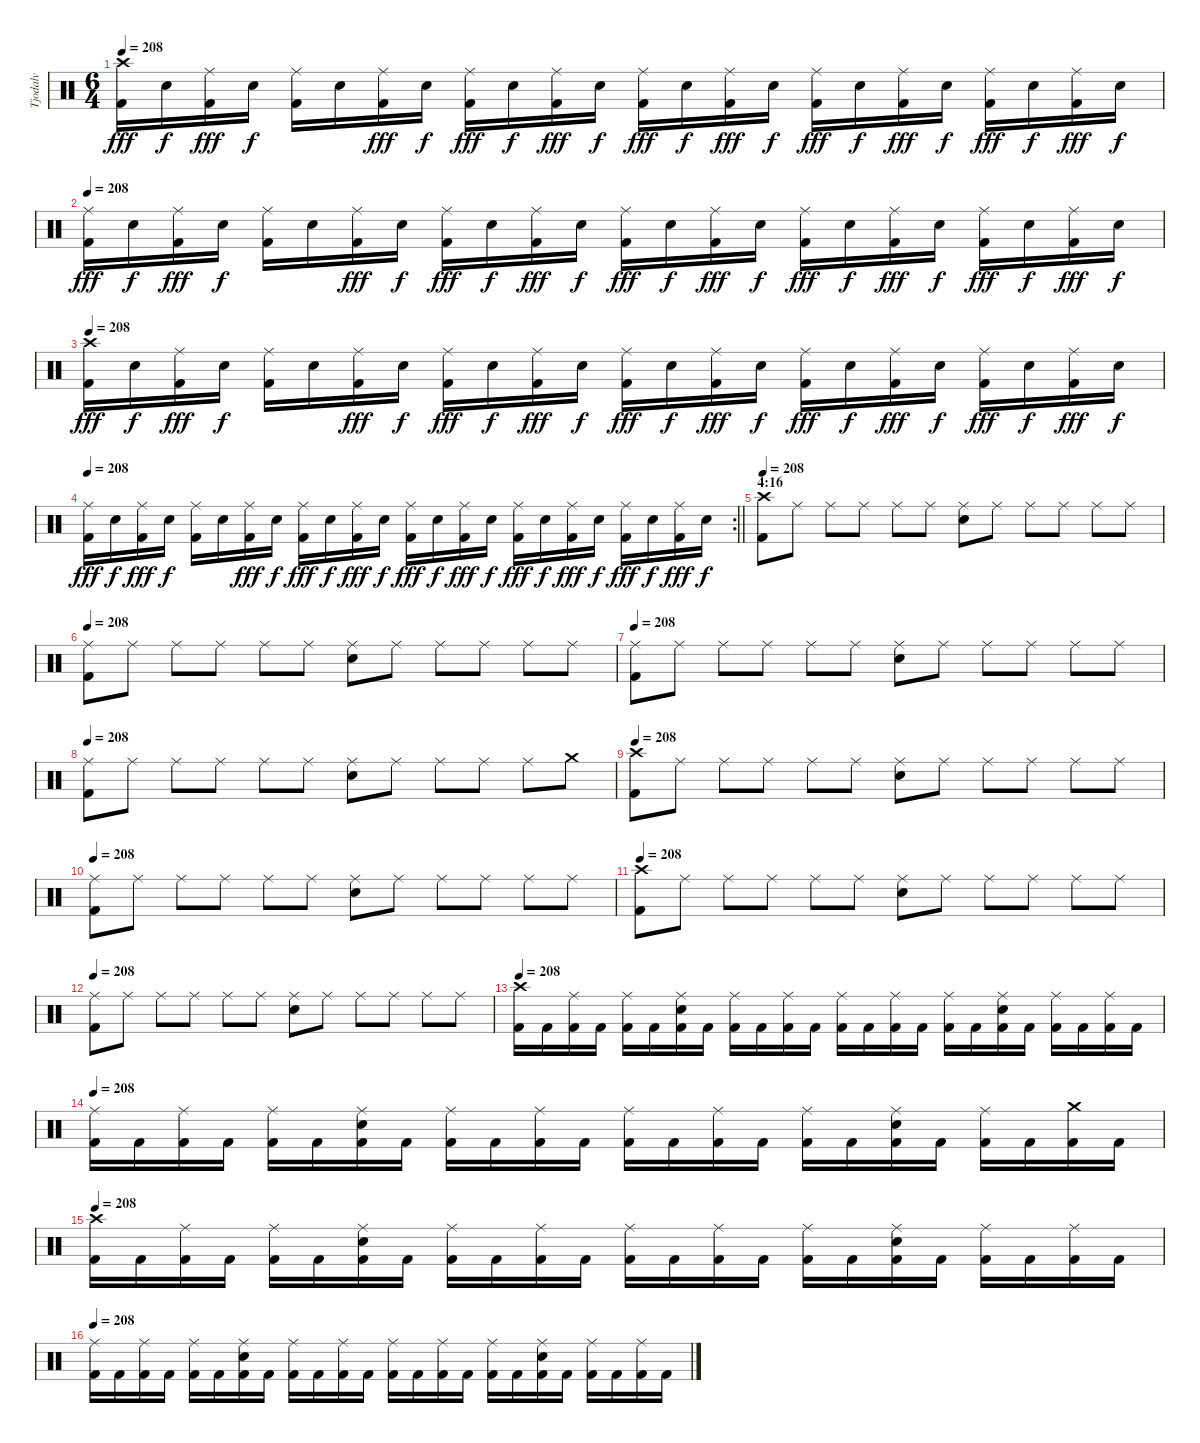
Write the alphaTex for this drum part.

\track ("Tjodalv" "Tjodalv") {instrument percussion}
\staff {score}
\articulation defaults
\ts (6 4)
\tempo 208
\clef neutral
\ks c
("Kick (hit) 2" "Crash high (hit)").16{dy fff} "Snare (hit) 2".16{dy f} ("Kick (hit) 2" "Ride (middle)").16{dy fff} "Snare (hit) 2".16{dy f} ("Kick (hit) 2" "Ride (middle)").16 "Snare (hit) 2".16 ("Kick (hit) 2" "Ride (middle)").16{dy fff} "Snare (hit) 2".16{dy f} ("Kick (hit) 2" "Ride (middle)").16{dy fff} "Snare (hit) 2".16{dy f} ("Kick (hit) 2" "Ride (middle)").16{dy fff} "Snare (hit) 2".16{dy f} ("Kick (hit) 2" "Ride (middle)").16{dy fff} "Snare (hit) 2".16{dy f} ("Kick (hit) 2" "Ride (middle)").16{dy fff} "Snare (hit) 2".16{dy f} ("Kick (hit) 2" "Ride (middle)").16{dy fff} "Snare (hit) 2".16{dy f} ("Kick (hit) 2" "Ride (middle)").16{dy fff} "Snare (hit) 2".16{dy f} ("Kick (hit) 2" "Ride (middle)").16{dy fff} "Snare (hit) 2".16{dy f} ("Kick (hit) 2" "Ride (middle)").16{dy fff} "Snare (hit) 2".16{dy f} |
\tempo 208
("Kick (hit) 2" "Ride (middle)").16{dy fff} "Snare (hit) 2".16{dy f} ("Kick (hit) 2" "Ride (middle)").16{dy fff} "Snare (hit) 2".16{dy f} ("Kick (hit) 2" "Ride (middle)").16 "Snare (hit) 2".16 ("Kick (hit) 2" "Ride (middle)").16{dy fff} "Snare (hit) 2".16{dy f} ("Kick (hit) 2" "Ride (middle)").16{dy fff} "Snare (hit) 2".16{dy f} ("Kick (hit) 2" "Ride (middle)").16{dy fff} "Snare (hit) 2".16{dy f} ("Kick (hit) 2" "Ride (middle)").16{dy fff} "Snare (hit) 2".16{dy f} ("Kick (hit) 2" "Ride (middle)").16{dy fff} "Snare (hit) 2".16{dy f} ("Kick (hit) 2" "Ride (middle)").16{dy fff} "Snare (hit) 2".16{dy f} ("Kick (hit) 2" "Ride (middle)").16{dy fff} "Snare (hit) 2".16{dy f} ("Kick (hit) 2" "Ride (middle)").16{dy fff} "Snare (hit) 2".16{dy f} ("Kick (hit) 2" "Ride (middle)").16{dy fff} "Snare (hit) 2".16{dy f} |
\tempo 208
("Kick (hit) 2" "Crash high (hit)").16{dy fff} "Snare (hit) 2".16{dy f} ("Kick (hit) 2" "Ride (middle)").16{dy fff} "Snare (hit) 2".16{dy f} ("Kick (hit) 2" "Ride (middle)").16 "Snare (hit) 2".16 ("Kick (hit) 2" "Ride (middle)").16{dy fff} "Snare (hit) 2".16{dy f} ("Kick (hit) 2" "Ride (middle)").16{dy fff} "Snare (hit) 2".16{dy f} ("Kick (hit) 2" "Ride (middle)").16{dy fff} "Snare (hit) 2".16{dy f} ("Kick (hit) 2" "Ride (middle)").16{dy fff} "Snare (hit) 2".16{dy f} ("Kick (hit) 2" "Ride (middle)").16{dy fff} "Snare (hit) 2".16{dy f} ("Kick (hit) 2" "Ride (middle)").16{dy fff} "Snare (hit) 2".16{dy f} ("Kick (hit) 2" "Ride (middle)").16{dy fff} "Snare (hit) 2".16{dy f} ("Kick (hit) 2" "Ride (middle)").16{dy fff} "Snare (hit) 2".16{dy f} ("Kick (hit) 2" "Ride (middle)").16{dy fff} "Snare (hit) 2".16{dy f} |
\rc 2
\tempo 208
\barLineRight lightlight
("Kick (hit) 2" "Ride (middle)").16{dy fff} "Snare (hit) 2".16{dy f} ("Kick (hit) 2" "Ride (middle)").16{dy fff} "Snare (hit) 2".16{dy f} ("Kick (hit) 2" "Ride (middle)").16 "Snare (hit) 2".16 ("Kick (hit) 2" "Ride (middle)").16{dy fff} "Snare (hit) 2".16{dy f} ("Kick (hit) 2" "Ride (middle)").16{dy fff} "Snare (hit) 2".16{dy f} ("Kick (hit) 2" "Ride (middle)").16{dy fff} "Snare (hit) 2".16{dy f} ("Kick (hit) 2" "Ride (middle)").16{dy fff} "Snare (hit) 2".16{dy f} ("Kick (hit) 2" "Ride (middle)").16{dy fff} "Snare (hit) 2".16{dy f} ("Kick (hit) 2" "Ride (middle)").16{dy fff} "Snare (hit) 2".16{dy f} ("Kick (hit) 2" "Ride (middle)").16{dy fff} "Snare (hit) 2".16{dy f} ("Kick (hit) 2" "Ride (middle)").16{dy fff} "Snare (hit) 2".16{dy f} ("Kick (hit) 2" "Ride (middle)").16{dy fff} "Snare (hit) 2".16{dy f} |
\section ("" "4:16")
\tempo 208
("Kick (hit) 2" "Crash high (hit)").8 "Ride (middle)".8 "Ride (middle)".8 "Ride (middle)".8 "Ride (middle)".8 "Ride (middle)".8 ("Snare (hit) 2" "Ride (middle)").8 "Ride (middle)".8 "Ride (middle)".8 "Ride (middle)".8 "Ride (middle)".8 "Ride (middle)".8 |
\tempo 208
("Kick (hit) 2" "Ride (middle)").8 "Ride (middle)".8 "Ride (middle)".8 "Ride (middle)".8 "Ride (middle)".8 "Ride (middle)".8 ("Snare (hit) 2" "Ride (middle)").8 "Ride (middle)".8 "Ride (middle)".8 "Ride (middle)".8 "Ride (middle)".8 "Ride (middle)".8 |
\tempo 208
("Kick (hit) 2" "Ride (middle)").8 "Ride (middle)".8 "Ride (middle)".8 "Ride (middle)".8 "Ride (middle)".8 "Ride (middle)".8 ("Snare (hit) 2" "Ride (middle)").8 "Ride (middle)".8 "Ride (middle)".8 "Ride (middle)".8 "Ride (middle)".8 "Ride (middle)".8 |
\tempo 208
("Kick (hit) 2" "Ride (middle)").8 "Ride (middle)".8 "Ride (middle)".8 "Ride (middle)".8 "Ride (middle)".8 "Ride (middle)".8 ("Snare (hit) 2" "Ride (middle)").8 "Ride (middle)".8 "Ride (middle)".8 "Ride (middle)".8 "Ride (middle)".8 "Crash medium (hit)".8 |
\tempo 208
("Kick (hit) 2" "Crash high (hit)").8 "Ride (middle)".8 "Ride (middle)".8 "Ride (middle)".8 "Ride (middle)".8 "Ride (middle)".8 ("Snare (hit) 2" "Ride (middle)").8 "Ride (middle)".8 "Ride (middle)".8 "Ride (middle)".8 "Ride (middle)".8 "Ride (middle)".8 |
\tempo 208
("Kick (hit) 2" "Ride (middle)").8 "Ride (middle)".8 "Ride (middle)".8 "Ride (middle)".8 "Ride (middle)".8 "Ride (middle)".8 ("Snare (hit) 2" "Ride (middle)").8 "Ride (middle)".8 "Ride (middle)".8 "Ride (middle)".8 "Ride (middle)".8 "Ride (middle)".8 |
\tempo 208
("Kick (hit) 2" "Crash high (hit)").8 "Ride (middle)".8 "Ride (middle)".8 "Ride (middle)".8 "Ride (middle)".8 "Ride (middle)".8 ("Snare (hit) 2" "Ride (middle)").8 "Ride (middle)".8 "Ride (middle)".8 "Ride (middle)".8 "Ride (middle)".8 "Ride (middle)".8 |
\tempo 208
("Kick (hit) 2" "Ride (middle)").8 "Ride (middle)".8 "Ride (middle)".8 "Ride (middle)".8 "Ride (middle)".8 "Ride (middle)".8 ("Snare (hit) 2" "Ride (middle)").8 "Ride (middle)".8 "Ride (middle)".8 "Ride (middle)".8 "Ride (middle)".8 "Ride (middle)".8 |
\tempo 208
("Kick (hit) 2" "Crash high (hit)").16 "Kick (hit) 2".16 ("Kick (hit) 2" "Ride (middle)").16 "Kick (hit) 2".16 ("Kick (hit) 2" "Ride (middle)").16 "Kick (hit) 2".16 ("Kick (hit) 2" "Snare (hit) 2" "Ride (middle)").16 "Kick (hit) 2".16 ("Kick (hit) 2" "Ride (middle)").16 "Kick (hit) 2".16 ("Kick (hit) 2" "Ride (middle)").16 "Kick (hit) 2".16 ("Kick (hit) 2" "Ride (middle)").16 "Kick (hit) 2".16 ("Kick (hit) 2" "Ride (middle)").16 "Kick (hit) 2".16 ("Kick (hit) 2" "Ride (middle)").16 "Kick (hit) 2".16 ("Kick (hit) 2" "Snare (hit) 2" "Ride (middle)").16 "Kick (hit) 2".16 ("Kick (hit) 2" "Ride (middle)").16 "Kick (hit) 2".16 ("Kick (hit) 2" "Ride (middle)").16 "Kick (hit) 2".16 |
\tempo 208
("Kick (hit) 2" "Ride (middle)").16 "Kick (hit) 2".16 ("Kick (hit) 2" "Ride (middle)").16 "Kick (hit) 2".16 ("Kick (hit) 2" "Ride (middle)").16 "Kick (hit) 2".16 ("Kick (hit) 2" "Snare (hit) 2" "Ride (middle)").16 "Kick (hit) 2".16 ("Kick (hit) 2" "Ride (middle)").16 "Kick (hit) 2".16 ("Kick (hit) 2" "Ride (middle)").16 "Kick (hit) 2".16 ("Kick (hit) 2" "Ride (middle)").16 "Kick (hit) 2".16 ("Kick (hit) 2" "Ride (middle)").16 "Kick (hit) 2".16 ("Kick (hit) 2" "Ride (middle)").16 "Kick (hit) 2".16 ("Kick (hit) 2" "Snare (hit) 2" "Ride (middle)").16 "Kick (hit) 2".16 ("Kick (hit) 2" "Ride (middle)").16 "Kick (hit) 2".16 ("Kick (hit) 2" "Crash medium (hit)").16 "Kick (hit) 2".16 |
\tempo 208
("Kick (hit) 2" "Crash high (hit)").16 "Kick (hit) 2".16 ("Kick (hit) 2" "Ride (middle)").16 "Kick (hit) 2".16 ("Kick (hit) 2" "Ride (middle)").16 "Kick (hit) 2".16 ("Kick (hit) 2" "Snare (hit) 2" "Ride (middle)").16 "Kick (hit) 2".16 ("Kick (hit) 2" "Ride (middle)").16 "Kick (hit) 2".16 ("Kick (hit) 2" "Ride (middle)").16 "Kick (hit) 2".16 ("Kick (hit) 2" "Ride (middle)").16 "Kick (hit) 2".16 ("Kick (hit) 2" "Ride (middle)").16 "Kick (hit) 2".16 ("Kick (hit) 2" "Ride (middle)").16 "Kick (hit) 2".16 ("Kick (hit) 2" "Snare (hit) 2" "Ride (middle)").16 "Kick (hit) 2".16 ("Kick (hit) 2" "Ride (middle)").16 "Kick (hit) 2".16 ("Kick (hit) 2" "Ride (middle)").16 "Kick (hit) 2".16 |
\tempo 208
("Kick (hit) 2" "Ride (middle)").16 "Kick (hit) 2".16 ("Kick (hit) 2" "Ride (middle)").16 "Kick (hit) 2".16 ("Kick (hit) 2" "Ride (middle)").16 "Kick (hit) 2".16 ("Kick (hit) 2" "Snare (hit) 2" "Ride (middle)").16 "Kick (hit) 2".16 ("Kick (hit) 2" "Ride (middle)").16 "Kick (hit) 2".16 ("Kick (hit) 2" "Ride (middle)").16 "Kick (hit) 2".16 ("Kick (hit) 2" "Ride (middle)").16 "Kick (hit) 2".16 ("Kick (hit) 2" "Ride (middle)").16 "Kick (hit) 2".16 ("Kick (hit) 2" "Ride (middle)").16 "Kick (hit) 2".16 ("Kick (hit) 2" "Snare (hit) 2" "Ride (middle)").16 "Kick (hit) 2".16 ("Kick (hit) 2" "Ride (middle)").16 "Kick (hit) 2".16 ("Kick (hit) 2" "Ride (middle)").16 "Kick (hit) 2".16
